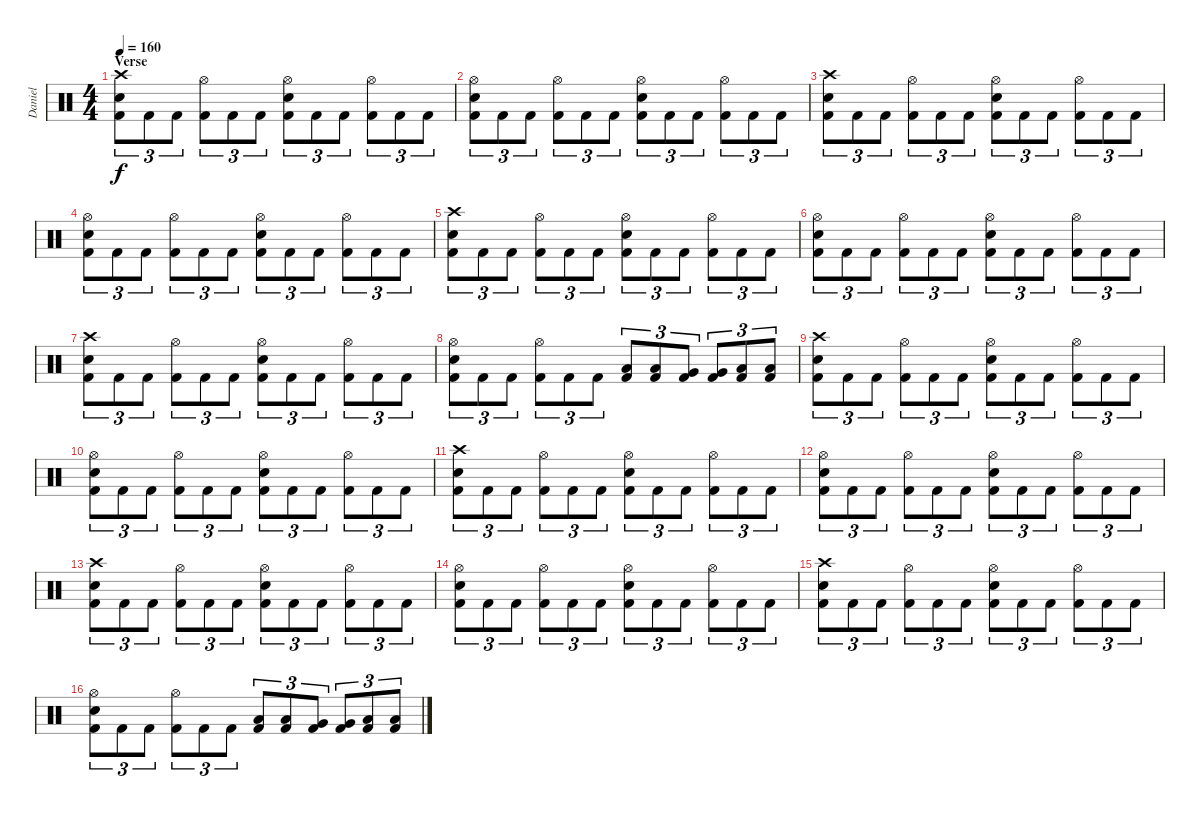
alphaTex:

\track ("Daniel" "Daniel") {instrument percussion}
\staff {score}
\articulation defaults
\ts (4 4)
\section ("" "Verse")
\tempo 160
\clef neutral
\ks c
("Crash high (hit)" "Electric Snare (hit)" "Kick (hit) 2").8{tu (3 2) dy f} "Kick (hit) 2".8{tu (3 2)} "Kick (hit) 2".8{tu (3 2)} ("Hi-Hat (open)" "Kick (hit) 2").8{tu (3 2)} "Kick (hit) 2".8{tu (3 2)} "Kick (hit) 2".8{tu (3 2)} ("Hi-Hat (open)" "Electric Snare (hit)" "Kick (hit) 2").8{tu (3 2)} "Kick (hit) 2".8{tu (3 2)} "Kick (hit) 2".8{tu (3 2)} ("Hi-Hat (open)" "Kick (hit) 2").8{tu (3 2)} "Kick (hit) 2".8{tu (3 2)} "Kick (hit) 2".8{tu (3 2)} |
("Hi-Hat (open)" "Electric Snare (hit)" "Kick (hit) 2").8{tu (3 2)} "Kick (hit) 2".8{tu (3 2)} "Kick (hit) 2".8{tu (3 2)} ("Hi-Hat (open)" "Kick (hit) 2").8{tu (3 2)} "Kick (hit) 2".8{tu (3 2)} "Kick (hit) 2".8{tu (3 2)} ("Hi-Hat (open)" "Electric Snare (hit)" "Kick (hit) 2").8{tu (3 2)} "Kick (hit) 2".8{tu (3 2)} "Kick (hit) 2".8{tu (3 2)} ("Hi-Hat (open)" "Kick (hit) 2").8{tu (3 2)} "Kick (hit) 2".8{tu (3 2)} "Kick (hit) 2".8{tu (3 2)} |
("Crash high (hit)" "Electric Snare (hit)" "Kick (hit) 2").8{tu (3 2)} "Kick (hit) 2".8{tu (3 2)} "Kick (hit) 2".8{tu (3 2)} ("Hi-Hat (open)" "Kick (hit) 2").8{tu (3 2)} "Kick (hit) 2".8{tu (3 2)} "Kick (hit) 2".8{tu (3 2)} ("Hi-Hat (open)" "Electric Snare (hit)" "Kick (hit) 2").8{tu (3 2)} "Kick (hit) 2".8{tu (3 2)} "Kick (hit) 2".8{tu (3 2)} ("Hi-Hat (open)" "Kick (hit) 2").8{tu (3 2)} "Kick (hit) 2".8{tu (3 2)} "Kick (hit) 2".8{tu (3 2)} |
("Hi-Hat (open)" "Electric Snare (hit)" "Kick (hit) 2").8{tu (3 2)} "Kick (hit) 2".8{tu (3 2)} "Kick (hit) 2".8{tu (3 2)} ("Hi-Hat (open)" "Kick (hit) 2").8{tu (3 2)} "Kick (hit) 2".8{tu (3 2)} "Kick (hit) 2".8{tu (3 2)} ("Hi-Hat (open)" "Electric Snare (hit)" "Kick (hit) 2").8{tu (3 2)} "Kick (hit) 2".8{tu (3 2)} "Kick (hit) 2".8{tu (3 2)} ("Hi-Hat (open)" "Kick (hit) 2").8{tu (3 2)} "Kick (hit) 2".8{tu (3 2)} "Kick (hit) 2".8{tu (3 2)} |
("Crash high (hit)" "Electric Snare (hit)" "Kick (hit) 2").8{tu (3 2)} "Kick (hit) 2".8{tu (3 2)} "Kick (hit) 2".8{tu (3 2)} ("Hi-Hat (open)" "Kick (hit) 2").8{tu (3 2)} "Kick (hit) 2".8{tu (3 2)} "Kick (hit) 2".8{tu (3 2)} ("Hi-Hat (open)" "Electric Snare (hit)" "Kick (hit) 2").8{tu (3 2)} "Kick (hit) 2".8{tu (3 2)} "Kick (hit) 2".8{tu (3 2)} ("Hi-Hat (open)" "Kick (hit) 2").8{tu (3 2)} "Kick (hit) 2".8{tu (3 2)} "Kick (hit) 2".8{tu (3 2)} |
("Hi-Hat (open)" "Electric Snare (hit)" "Kick (hit) 2").8{tu (3 2)} "Kick (hit) 2".8{tu (3 2)} "Kick (hit) 2".8{tu (3 2)} ("Hi-Hat (open)" "Kick (hit) 2").8{tu (3 2)} "Kick (hit) 2".8{tu (3 2)} "Kick (hit) 2".8{tu (3 2)} ("Hi-Hat (open)" "Electric Snare (hit)" "Kick (hit) 2").8{tu (3 2)} "Kick (hit) 2".8{tu (3 2)} "Kick (hit) 2".8{tu (3 2)} ("Hi-Hat (open)" "Kick (hit) 2").8{tu (3 2)} "Kick (hit) 2".8{tu (3 2)} "Kick (hit) 2".8{tu (3 2)} |
("Crash high (hit)" "Electric Snare (hit)" "Kick (hit) 2").8{tu (3 2)} "Kick (hit) 2".8{tu (3 2)} "Kick (hit) 2".8{tu (3 2)} ("Hi-Hat (open)" "Kick (hit) 2").8{tu (3 2)} "Kick (hit) 2".8{tu (3 2)} "Kick (hit) 2".8{tu (3 2)} ("Hi-Hat (open)" "Electric Snare (hit)" "Kick (hit) 2").8{tu (3 2)} "Kick (hit) 2".8{tu (3 2)} "Kick (hit) 2".8{tu (3 2)} ("Hi-Hat (open)" "Kick (hit) 2").8{tu (3 2)} "Kick (hit) 2".8{tu (3 2)} "Kick (hit) 2".8{tu (3 2)} |
("Hi-Hat (open)" "Electric Snare (hit)" "Kick (hit) 2").8{tu (3 2)} "Kick (hit) 2".8{tu (3 2)} "Kick (hit) 2".8{tu (3 2)} ("Hi-Hat (open)" "Kick (hit) 2").8{tu (3 2)} "Kick (hit) 2".8{tu (3 2)} "Kick (hit) 2".8{tu (3 2)} ("Low Tom (hit)" "Kick (hit) 2").8{tu (3 2)} ("Low Tom (hit)" "Kick (hit) 2").8{tu (3 2)} ("Very Low Tom (hit)" "Kick (hit) 2").8{tu (3 2)} ("Very Low Tom (hit)" "Kick (hit) 2").8{tu (3 2)} ("Low Floor Tom (hit)" "Kick (hit) 2").8{tu (3 2)} ("Low Floor Tom (hit)" "Kick (hit) 2").8{tu (3 2)} |
("Crash high (hit)" "Electric Snare (hit)" "Kick (hit) 2").8{tu (3 2)} "Kick (hit) 2".8{tu (3 2)} "Kick (hit) 2".8{tu (3 2)} ("Hi-Hat (open)" "Kick (hit) 2").8{tu (3 2)} "Kick (hit) 2".8{tu (3 2)} "Kick (hit) 2".8{tu (3 2)} ("Hi-Hat (open)" "Electric Snare (hit)" "Kick (hit) 2").8{tu (3 2)} "Kick (hit) 2".8{tu (3 2)} "Kick (hit) 2".8{tu (3 2)} ("Hi-Hat (open)" "Kick (hit) 2").8{tu (3 2)} "Kick (hit) 2".8{tu (3 2)} "Kick (hit) 2".8{tu (3 2)} |
("Hi-Hat (open)" "Electric Snare (hit)" "Kick (hit) 2").8{tu (3 2)} "Kick (hit) 2".8{tu (3 2)} "Kick (hit) 2".8{tu (3 2)} ("Hi-Hat (open)" "Kick (hit) 2").8{tu (3 2)} "Kick (hit) 2".8{tu (3 2)} "Kick (hit) 2".8{tu (3 2)} ("Hi-Hat (open)" "Electric Snare (hit)" "Kick (hit) 2").8{tu (3 2)} "Kick (hit) 2".8{tu (3 2)} "Kick (hit) 2".8{tu (3 2)} ("Hi-Hat (open)" "Kick (hit) 2").8{tu (3 2)} "Kick (hit) 2".8{tu (3 2)} "Kick (hit) 2".8{tu (3 2)} |
("Crash high (hit)" "Electric Snare (hit)" "Kick (hit) 2").8{tu (3 2)} "Kick (hit) 2".8{tu (3 2)} "Kick (hit) 2".8{tu (3 2)} ("Hi-Hat (open)" "Kick (hit) 2").8{tu (3 2)} "Kick (hit) 2".8{tu (3 2)} "Kick (hit) 2".8{tu (3 2)} ("Hi-Hat (open)" "Electric Snare (hit)" "Kick (hit) 2").8{tu (3 2)} "Kick (hit) 2".8{tu (3 2)} "Kick (hit) 2".8{tu (3 2)} ("Hi-Hat (open)" "Kick (hit) 2").8{tu (3 2)} "Kick (hit) 2".8{tu (3 2)} "Kick (hit) 2".8{tu (3 2)} |
("Hi-Hat (open)" "Electric Snare (hit)" "Kick (hit) 2").8{tu (3 2)} "Kick (hit) 2".8{tu (3 2)} "Kick (hit) 2".8{tu (3 2)} ("Hi-Hat (open)" "Kick (hit) 2").8{tu (3 2)} "Kick (hit) 2".8{tu (3 2)} "Kick (hit) 2".8{tu (3 2)} ("Hi-Hat (open)" "Electric Snare (hit)" "Kick (hit) 2").8{tu (3 2)} "Kick (hit) 2".8{tu (3 2)} "Kick (hit) 2".8{tu (3 2)} ("Hi-Hat (open)" "Kick (hit) 2").8{tu (3 2)} "Kick (hit) 2".8{tu (3 2)} "Kick (hit) 2".8{tu (3 2)} |
("Crash high (hit)" "Electric Snare (hit)" "Kick (hit) 2").8{tu (3 2)} "Kick (hit) 2".8{tu (3 2)} "Kick (hit) 2".8{tu (3 2)} ("Hi-Hat (open)" "Kick (hit) 2").8{tu (3 2)} "Kick (hit) 2".8{tu (3 2)} "Kick (hit) 2".8{tu (3 2)} ("Hi-Hat (open)" "Electric Snare (hit)" "Kick (hit) 2").8{tu (3 2)} "Kick (hit) 2".8{tu (3 2)} "Kick (hit) 2".8{tu (3 2)} ("Hi-Hat (open)" "Kick (hit) 2").8{tu (3 2)} "Kick (hit) 2".8{tu (3 2)} "Kick (hit) 2".8{tu (3 2)} |
("Hi-Hat (open)" "Electric Snare (hit)" "Kick (hit) 2").8{tu (3 2)} "Kick (hit) 2".8{tu (3 2)} "Kick (hit) 2".8{tu (3 2)} ("Hi-Hat (open)" "Kick (hit) 2").8{tu (3 2)} "Kick (hit) 2".8{tu (3 2)} "Kick (hit) 2".8{tu (3 2)} ("Hi-Hat (open)" "Electric Snare (hit)" "Kick (hit) 2").8{tu (3 2)} "Kick (hit) 2".8{tu (3 2)} "Kick (hit) 2".8{tu (3 2)} ("Hi-Hat (open)" "Kick (hit) 2").8{tu (3 2)} "Kick (hit) 2".8{tu (3 2)} "Kick (hit) 2".8{tu (3 2)} |
("Crash high (hit)" "Electric Snare (hit)" "Kick (hit) 2").8{tu (3 2)} "Kick (hit) 2".8{tu (3 2)} "Kick (hit) 2".8{tu (3 2)} ("Hi-Hat (open)" "Kick (hit) 2").8{tu (3 2)} "Kick (hit) 2".8{tu (3 2)} "Kick (hit) 2".8{tu (3 2)} ("Hi-Hat (open)" "Electric Snare (hit)" "Kick (hit) 2").8{tu (3 2)} "Kick (hit) 2".8{tu (3 2)} "Kick (hit) 2".8{tu (3 2)} ("Hi-Hat (open)" "Kick (hit) 2").8{tu (3 2)} "Kick (hit) 2".8{tu (3 2)} "Kick (hit) 2".8{tu (3 2)} |
("Hi-Hat (open)" "Electric Snare (hit)" "Kick (hit) 2").8{tu (3 2)} "Kick (hit) 2".8{tu (3 2)} "Kick (hit) 2".8{tu (3 2)} ("Hi-Hat (open)" "Kick (hit) 2").8{tu (3 2)} "Kick (hit) 2".8{tu (3 2)} "Kick (hit) 2".8{tu (3 2)} ("Low Tom (hit)" "Kick (hit) 2").8{tu (3 2)} ("Low Tom (hit)" "Kick (hit) 2").8{tu (3 2)} ("Very Low Tom (hit)" "Kick (hit) 2").8{tu (3 2)} ("Very Low Tom (hit)" "Kick (hit) 2").8{tu (3 2)} ("Low Floor Tom (hit)" "Kick (hit) 2").8{tu (3 2)} ("Low Floor Tom (hit)" "Kick (hit) 2").8{tu (3 2)}
